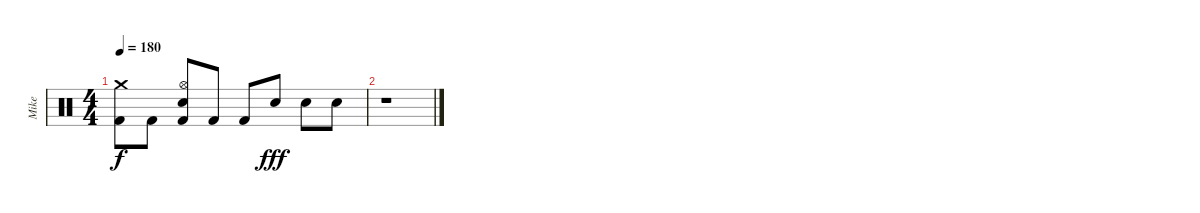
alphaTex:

\track ("Mike" "Mike") {instrument percussion}
\staff {score}
\articulation defaults
\ts (4 4)
\tempo 180
\clef neutral
\ks c
("Crash medium (hit)" "Kick (hit) 2").8{dy f volume 1} "Kick (hit) 2".8 ("Hi-Hat (open)" "Snare (hit) 2" "Kick (hit) 2").8 "Kick (hit) 2".8 "Kick (hit) 2".8 "Snare (hit) 2".8{dy fff volume 0} "Snare (hit) 2".8 "Snare (hit) 2".8 |
r.1
